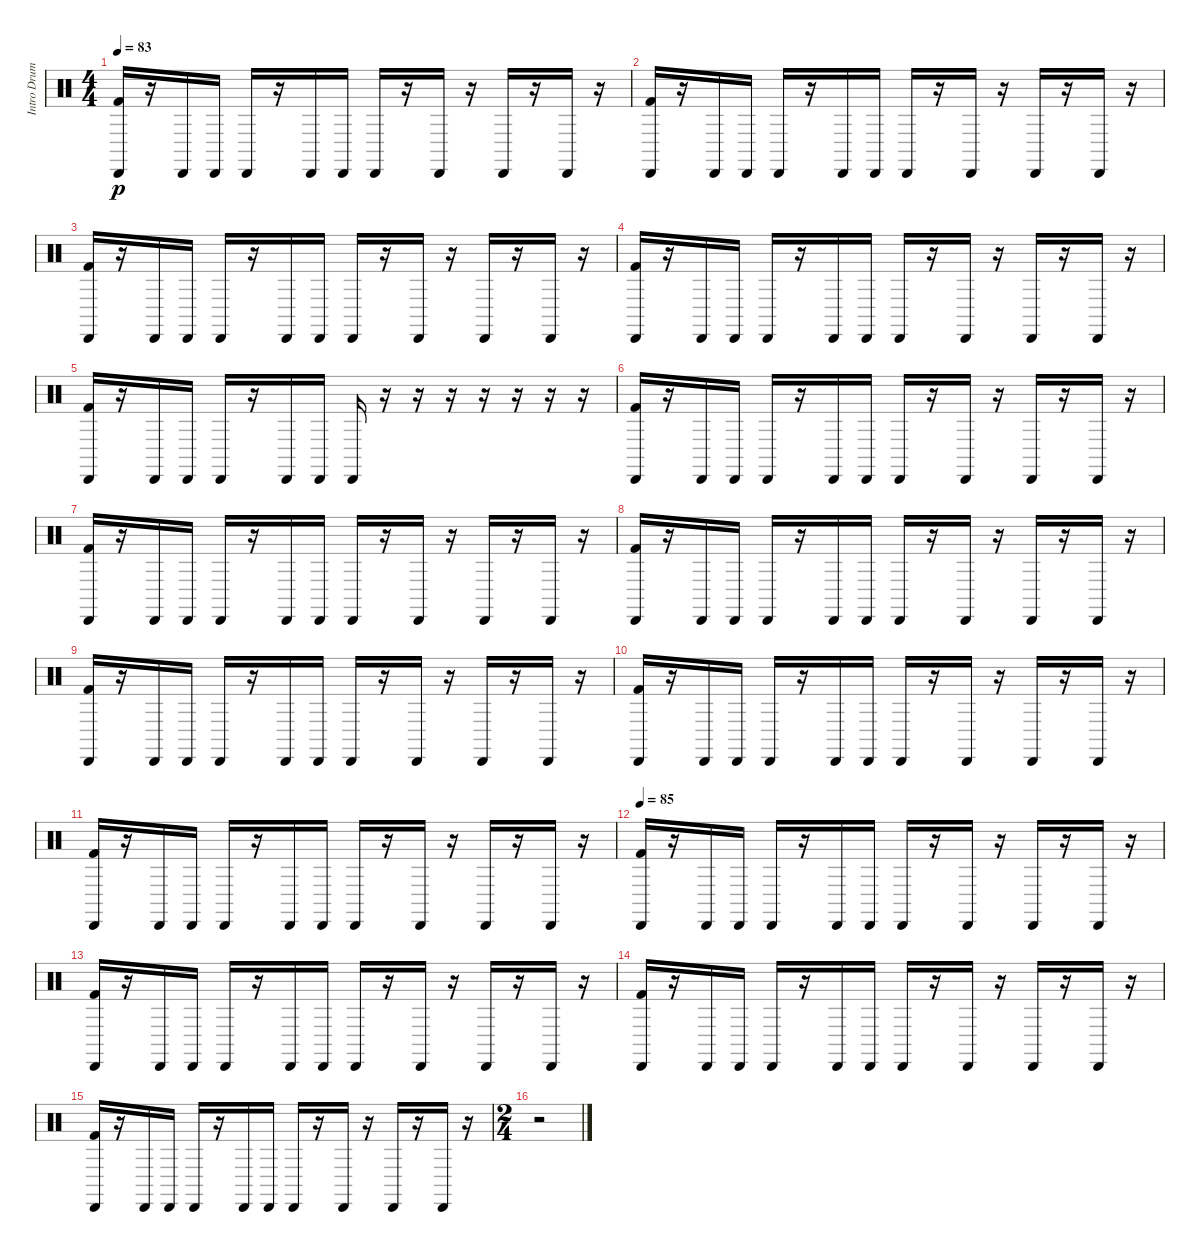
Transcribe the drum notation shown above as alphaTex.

\track ("Intro Drums" "Intro Drum") {instrument percussion}
\staff {score}
\articulation defaults
\ts (4 4)
\tempo 83
\clef neutral
\ks c
("Cabasa (hit)" "Kick (hit) 2").16{dy p} r.16 "Cabasa (hit)".16 "Cabasa (hit)".16 "Cabasa (hit)".16 r.16 "Cabasa (hit)".16 "Cabasa (hit)".16 "Cabasa (hit)".16 r.16 "Cabasa (hit)".16 r.16 "Cabasa (hit)".16 r.16 "Cabasa (hit)".16 r.16 |
("Cabasa (hit)" "Kick (hit) 2").16 r.16 "Cabasa (hit)".16 "Cabasa (hit)".16 "Cabasa (hit)".16 r.16 "Cabasa (hit)".16 "Cabasa (hit)".16 "Cabasa (hit)".16 r.16 "Cabasa (hit)".16 r.16 "Cabasa (hit)".16 r.16 "Cabasa (hit)".16 r.16 |
("Cabasa (hit)" "Kick (hit) 2").16 r.16 "Cabasa (hit)".16 "Cabasa (hit)".16 "Cabasa (hit)".16 r.16 "Cabasa (hit)".16 "Cabasa (hit)".16 "Cabasa (hit)".16 r.16 "Cabasa (hit)".16 r.16 "Cabasa (hit)".16 r.16 "Cabasa (hit)".16 r.16 |
("Cabasa (hit)" "Kick (hit) 2").16 r.16 "Cabasa (hit)".16 "Cabasa (hit)".16 "Cabasa (hit)".16 r.16 "Cabasa (hit)".16 "Cabasa (hit)".16 "Cabasa (hit)".16 r.16 "Cabasa (hit)".16 r.16 "Cabasa (hit)".16 r.16 "Cabasa (hit)".16 r.16 |
("Cabasa (hit)" "Kick (hit) 2").16 r.16 "Cabasa (hit)".16 "Cabasa (hit)".16 "Cabasa (hit)".16 r.16 "Cabasa (hit)".16 "Cabasa (hit)".16 "Cabasa (hit)".16 r.16 r.16 r.16 r.16 r.16 r.16 r.16 |
("Cabasa (hit)" "Kick (hit) 2").16 r.16 "Cabasa (hit)".16 "Cabasa (hit)".16 "Cabasa (hit)".16 r.16 "Cabasa (hit)".16 "Cabasa (hit)".16 "Cabasa (hit)".16 r.16 "Cabasa (hit)".16 r.16 "Cabasa (hit)".16 r.16 "Cabasa (hit)".16 r.16 |
("Cabasa (hit)" "Kick (hit) 2").16 r.16 "Cabasa (hit)".16 "Cabasa (hit)".16 "Cabasa (hit)".16 r.16 "Cabasa (hit)".16 "Cabasa (hit)".16 "Cabasa (hit)".16 r.16 "Cabasa (hit)".16 r.16 "Cabasa (hit)".16 r.16 "Cabasa (hit)".16 r.16 |
("Cabasa (hit)" "Kick (hit) 2").16 r.16 "Cabasa (hit)".16 "Cabasa (hit)".16 "Cabasa (hit)".16 r.16 "Cabasa (hit)".16 "Cabasa (hit)".16 "Cabasa (hit)".16 r.16 "Cabasa (hit)".16 r.16 "Cabasa (hit)".16 r.16 "Cabasa (hit)".16 r.16 |
("Cabasa (hit)" "Kick (hit) 2").16 r.16 "Cabasa (hit)".16 "Cabasa (hit)".16 "Cabasa (hit)".16 r.16 "Cabasa (hit)".16 "Cabasa (hit)".16 "Cabasa (hit)".16 r.16 "Cabasa (hit)".16 r.16 "Cabasa (hit)".16 r.16 "Cabasa (hit)".16 r.16 |
("Cabasa (hit)" "Kick (hit) 2").16 r.16 "Cabasa (hit)".16 "Cabasa (hit)".16 "Cabasa (hit)".16 r.16 "Cabasa (hit)".16 "Cabasa (hit)".16 "Cabasa (hit)".16 r.16 "Cabasa (hit)".16 r.16 "Cabasa (hit)".16 r.16 "Cabasa (hit)".16 r.16 |
("Cabasa (hit)" "Kick (hit) 2").16 r.16 "Cabasa (hit)".16 "Cabasa (hit)".16 "Cabasa (hit)".16 r.16 "Cabasa (hit)".16 "Cabasa (hit)".16 "Cabasa (hit)".16 r.16 "Cabasa (hit)".16 r.16 "Cabasa (hit)".16 r.16 "Cabasa (hit)".16 r.16 |
\tempo 85
("Cabasa (hit)" "Kick (hit) 2").16 r.16 "Cabasa (hit)".16 "Cabasa (hit)".16 "Cabasa (hit)".16 r.16 "Cabasa (hit)".16 "Cabasa (hit)".16 "Cabasa (hit)".16 r.16 "Cabasa (hit)".16 r.16 "Cabasa (hit)".16 r.16 "Cabasa (hit)".16 r.16 |
("Cabasa (hit)" "Kick (hit) 2").16 r.16 "Cabasa (hit)".16 "Cabasa (hit)".16 "Cabasa (hit)".16 r.16 "Cabasa (hit)".16 "Cabasa (hit)".16 "Cabasa (hit)".16 r.16 "Cabasa (hit)".16 r.16 "Cabasa (hit)".16 r.16 "Cabasa (hit)".16 r.16 |
("Cabasa (hit)" "Kick (hit) 2").16 r.16 "Cabasa (hit)".16 "Cabasa (hit)".16 "Cabasa (hit)".16 r.16 "Cabasa (hit)".16 "Cabasa (hit)".16 "Cabasa (hit)".16 r.16 "Cabasa (hit)".16 r.16 "Cabasa (hit)".16 r.16 "Cabasa (hit)".16 r.16 |
("Cabasa (hit)" "Kick (hit) 2").16 r.16 "Cabasa (hit)".16 "Cabasa (hit)".16 "Cabasa (hit)".16 r.16 "Cabasa (hit)".16 "Cabasa (hit)".16 "Cabasa (hit)".16 r.16 "Cabasa (hit)".16 r.16 "Cabasa (hit)".16 r.16 "Cabasa (hit)".16 r.16 |
\ts (2 4)
r.2
